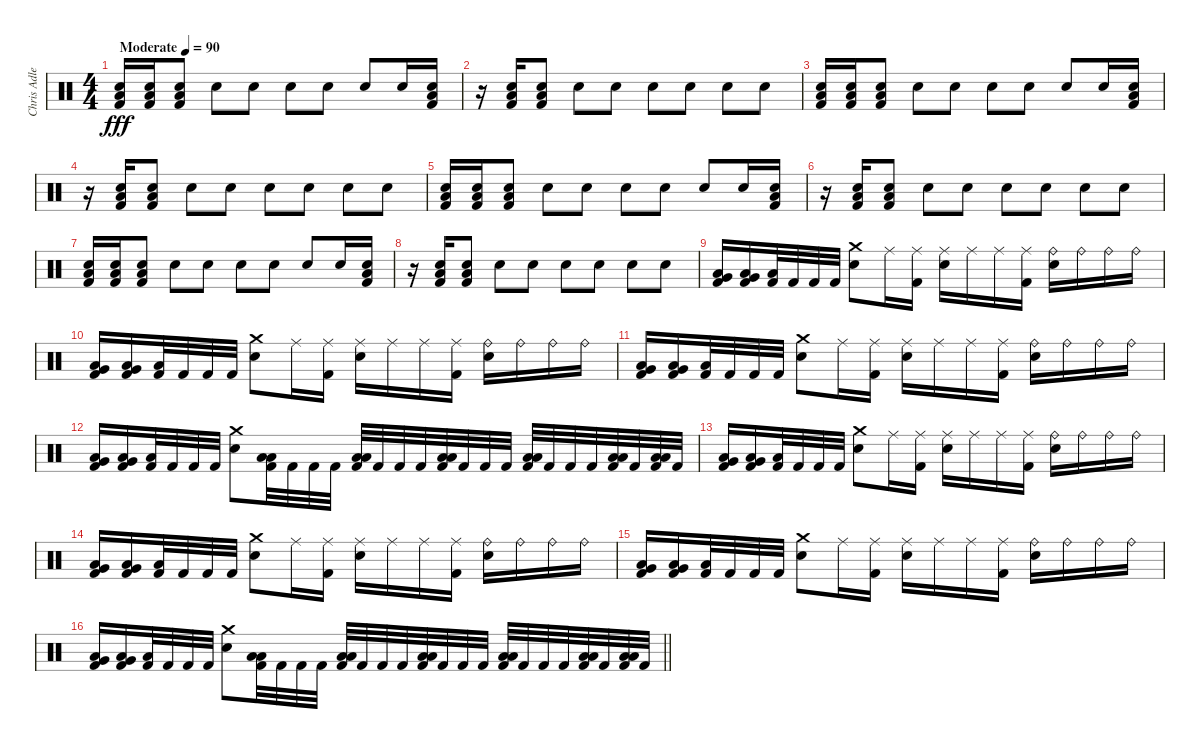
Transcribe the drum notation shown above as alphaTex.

\track ("Chris Adler" "Chris Adle") {instrument percussion}
\staff {score}
\articulation defaults
\ts (4 4)
\tempo (90 "Moderate")
\clef neutral
\ks c
("Low Floor Tom (hit)" "Electric Snare (hit)" "Kick (hit) 2").16{dy fff} ("Low Floor Tom (hit)" "Electric Snare (hit)" "Kick (hit) 2").16 ("Low Floor Tom (hit)" "Electric Snare (hit)" "Kick (hit) 2").8 "Electric Snare (hit)".8 "Electric Snare (hit)".8 "Electric Snare (hit)".8 "Electric Snare (hit)".8 "Electric Snare (hit)".8 "Electric Snare (hit)".16 ("Low Floor Tom (hit)" "Electric Snare (hit)" "Kick (hit) 2").16 |
r.16 ("Low Floor Tom (hit)" "Electric Snare (hit)" "Kick (hit) 2").16 ("Low Floor Tom (hit)" "Electric Snare (hit)" "Kick (hit) 2").8 "Electric Snare (hit)".8 "Electric Snare (hit)".8 "Electric Snare (hit)".8 "Electric Snare (hit)".8 "Electric Snare (hit)".8 "Electric Snare (hit)".8 |
("Low Floor Tom (hit)" "Electric Snare (hit)" "Kick (hit) 2").16 ("Low Floor Tom (hit)" "Electric Snare (hit)" "Kick (hit) 2").16 ("Low Floor Tom (hit)" "Electric Snare (hit)" "Kick (hit) 2").8 "Electric Snare (hit)".8 "Electric Snare (hit)".8 "Electric Snare (hit)".8 "Electric Snare (hit)".8 "Electric Snare (hit)".8 "Electric Snare (hit)".16 ("Low Floor Tom (hit)" "Electric Snare (hit)" "Kick (hit) 2").16 |
r.16 ("Low Floor Tom (hit)" "Electric Snare (hit)" "Kick (hit) 2").16 ("Low Floor Tom (hit)" "Electric Snare (hit)" "Kick (hit) 2").8 "Electric Snare (hit)".8 "Electric Snare (hit)".8 "Electric Snare (hit)".8 "Electric Snare (hit)".8 "Electric Snare (hit)".8 "Electric Snare (hit)".8 |
("Low Floor Tom (hit)" "Electric Snare (hit)" "Kick (hit) 2").16 ("Low Floor Tom (hit)" "Electric Snare (hit)" "Kick (hit) 2").16 ("Low Floor Tom (hit)" "Electric Snare (hit)" "Kick (hit) 2").8 "Electric Snare (hit)".8 "Electric Snare (hit)".8 "Electric Snare (hit)".8 "Electric Snare (hit)".8 "Electric Snare (hit)".8 "Electric Snare (hit)".16 ("Low Floor Tom (hit)" "Electric Snare (hit)" "Kick (hit) 2").16 |
r.16 ("Low Floor Tom (hit)" "Electric Snare (hit)" "Kick (hit) 2").16 ("Low Floor Tom (hit)" "Electric Snare (hit)" "Kick (hit) 2").8 "Electric Snare (hit)".8 "Electric Snare (hit)".8 "Electric Snare (hit)".8 "Electric Snare (hit)".8 "Electric Snare (hit)".8 "Electric Snare (hit)".8 |
("Low Floor Tom (hit)" "Electric Snare (hit)" "Kick (hit) 2").16 ("Low Floor Tom (hit)" "Electric Snare (hit)" "Kick (hit) 2").16 ("Low Floor Tom (hit)" "Electric Snare (hit)" "Kick (hit) 2").8 "Electric Snare (hit)".8 "Electric Snare (hit)".8 "Electric Snare (hit)".8 "Electric Snare (hit)".8 "Electric Snare (hit)".8 "Electric Snare (hit)".16 ("Low Floor Tom (hit)" "Electric Snare (hit)" "Kick (hit) 2").16 |
r.16 ("Low Floor Tom (hit)" "Electric Snare (hit)" "Kick (hit) 2").16 ("Low Floor Tom (hit)" "Electric Snare (hit)" "Kick (hit) 2").8 "Electric Snare (hit)".8 "Electric Snare (hit)".8 "Electric Snare (hit)".8 "Electric Snare (hit)".8 "Electric Snare (hit)".8 "Electric Snare (hit)".8 |
("Very Low Tom (hit)" "Low Tom (hit)" "Kick (hit) 2").16 ("Very Low Tom (hit)" "Low Tom (hit)" "Kick (hit) 2").16 ("Low Floor Tom (hit)" "Kick (hit) 2").32 "Kick (hit) 2".32 "Kick (hit) 2".32 "Kick (hit) 2".32 ("Crash medium (hit)" "Electric Snare (hit)").8 "Ride (middle)".16 ("Ride (middle)" "Kick (hit) 2").16 ("Ride (middle)" "Electric Snare (hit)").16 "Ride (middle)".16 "Ride (middle)".16 ("Ride (middle)" "Kick (hit) 2").16 ("Ride (bell)" "Electric Snare (hit)").16 "Ride (bell)".16 "Ride (bell)".16 "Ride (bell)".16 |
("Very Low Tom (hit)" "Low Tom (hit)" "Kick (hit) 2").16 ("Very Low Tom (hit)" "Low Tom (hit)" "Kick (hit) 2").16 ("Low Floor Tom (hit)" "Kick (hit) 2").32 "Kick (hit) 2".32 "Kick (hit) 2".32 "Kick (hit) 2".32 ("Crash medium (hit)" "Electric Snare (hit)").8 "Ride (middle)".16 ("Ride (middle)" "Kick (hit) 2").16 ("Ride (middle)" "Electric Snare (hit)").16 "Ride (middle)".16 "Ride (middle)".16 ("Ride (middle)" "Kick (hit) 2").16 ("Ride (bell)" "Electric Snare (hit)").16 "Ride (bell)".16 "Ride (bell)".16 "Ride (bell)".16 |
("Very Low Tom (hit)" "Low Tom (hit)" "Kick (hit) 2").16 ("Very Low Tom (hit)" "Low Tom (hit)" "Kick (hit) 2").16 ("Low Floor Tom (hit)" "Kick (hit) 2").32 "Kick (hit) 2".32 "Kick (hit) 2".32 "Kick (hit) 2".32 ("Crash medium (hit)" "Electric Snare (hit)").8 "Ride (middle)".16 ("Ride (middle)" "Kick (hit) 2").16 ("Ride (middle)" "Electric Snare (hit)").16 "Ride (middle)".16 "Ride (middle)".16 ("Ride (middle)" "Kick (hit) 2").16 ("Ride (bell)" "Electric Snare (hit)").16 "Ride (bell)".16 "Ride (bell)".16 "Ride (bell)".16 |
("Very Low Tom (hit)" "Low Tom (hit)" "Kick (hit) 2").16 ("Very Low Tom (hit)" "Low Tom (hit)" "Kick (hit) 2").16 ("Low Floor Tom (hit)" "Kick (hit) 2").32 "Kick (hit) 2".32 "Kick (hit) 2".32 "Kick (hit) 2".32 ("Crash medium (hit)" "Electric Snare (hit)").8 ("Low Tom (hit)" "Low Floor Tom (hit)" "Kick (hit) 2").32 "Kick (hit) 2".32 "Kick (hit) 2".32 "Kick (hit) 2".32 ("Low Tom (hit)" "Low Floor Tom (hit)" "Kick (hit) 2").32 "Kick (hit) 2".32 "Kick (hit) 2".32 "Kick (hit) 2".32 ("Low Tom (hit)" "Low Floor Tom (hit)" "Kick (hit) 2").32 "Kick (hit) 2".32 "Kick (hit) 2".32 "Kick (hit) 2".32 ("Low Tom (hit)" "Low Floor Tom (hit)" "Kick (hit) 2").32 "Kick (hit) 2".32 "Kick (hit) 2".32 "Kick (hit) 2".32 ("Low Tom (hit)" "Low Floor Tom (hit)" "Kick (hit) 2").32 "Kick (hit) 2".32 ("Low Tom (hit)" "Low Floor Tom (hit)" "Kick (hit) 2").32 "Kick (hit) 2".32 |
("Very Low Tom (hit)" "Low Tom (hit)" "Kick (hit) 2").16 ("Very Low Tom (hit)" "Low Tom (hit)" "Kick (hit) 2").16 ("Low Floor Tom (hit)" "Kick (hit) 2").32 "Kick (hit) 2".32 "Kick (hit) 2".32 "Kick (hit) 2".32 ("Crash medium (hit)" "Electric Snare (hit)").8 "Ride (middle)".16 ("Ride (middle)" "Kick (hit) 2").16 ("Ride (middle)" "Electric Snare (hit)").16 "Ride (middle)".16 "Ride (middle)".16 ("Ride (middle)" "Kick (hit) 2").16 ("Ride (bell)" "Electric Snare (hit)").16 "Ride (bell)".16 "Ride (bell)".16 "Ride (bell)".16 |
("Very Low Tom (hit)" "Low Tom (hit)" "Kick (hit) 2").16 ("Very Low Tom (hit)" "Low Tom (hit)" "Kick (hit) 2").16 ("Low Floor Tom (hit)" "Kick (hit) 2").32 "Kick (hit) 2".32 "Kick (hit) 2".32 "Kick (hit) 2".32 ("Crash medium (hit)" "Electric Snare (hit)").8 "Ride (middle)".16 ("Ride (middle)" "Kick (hit) 2").16 ("Ride (middle)" "Electric Snare (hit)").16 "Ride (middle)".16 "Ride (middle)".16 ("Ride (middle)" "Kick (hit) 2").16 ("Ride (bell)" "Electric Snare (hit)").16 "Ride (bell)".16 "Ride (bell)".16 "Ride (bell)".16 |
("Very Low Tom (hit)" "Low Tom (hit)" "Kick (hit) 2").16 ("Very Low Tom (hit)" "Low Tom (hit)" "Kick (hit) 2").16 ("Low Floor Tom (hit)" "Kick (hit) 2").32 "Kick (hit) 2".32 "Kick (hit) 2".32 "Kick (hit) 2".32 ("Crash medium (hit)" "Electric Snare (hit)").8 "Ride (middle)".16 ("Ride (middle)" "Kick (hit) 2").16 ("Ride (middle)" "Electric Snare (hit)").16 "Ride (middle)".16 "Ride (middle)".16 ("Ride (middle)" "Kick (hit) 2").16 ("Ride (bell)" "Electric Snare (hit)").16 "Ride (bell)".16 "Ride (bell)".16 "Ride (bell)".16 |
\barLineRight lightlight
("Very Low Tom (hit)" "Low Tom (hit)" "Kick (hit) 2").16 ("Very Low Tom (hit)" "Low Tom (hit)" "Kick (hit) 2").16 ("Low Floor Tom (hit)" "Kick (hit) 2").32 "Kick (hit) 2".32 "Kick (hit) 2".32 "Kick (hit) 2".32 ("Crash medium (hit)" "Electric Snare (hit)").8 ("Low Tom (hit)" "Low Floor Tom (hit)" "Kick (hit) 2").32 "Kick (hit) 2".32 "Kick (hit) 2".32 "Kick (hit) 2".32 ("Low Tom (hit)" "Low Floor Tom (hit)" "Kick (hit) 2").32 "Kick (hit) 2".32 "Kick (hit) 2".32 "Kick (hit) 2".32 ("Low Tom (hit)" "Low Floor Tom (hit)" "Kick (hit) 2").32 "Kick (hit) 2".32 "Kick (hit) 2".32 "Kick (hit) 2".32 ("Low Tom (hit)" "Low Floor Tom (hit)" "Kick (hit) 2").32 "Kick (hit) 2".32 "Kick (hit) 2".32 "Kick (hit) 2".32 ("Low Tom (hit)" "Low Floor Tom (hit)" "Kick (hit) 2").32 "Kick (hit) 2".32 ("Low Tom (hit)" "Low Floor Tom (hit)" "Kick (hit) 2").32 "Kick (hit) 2".32
